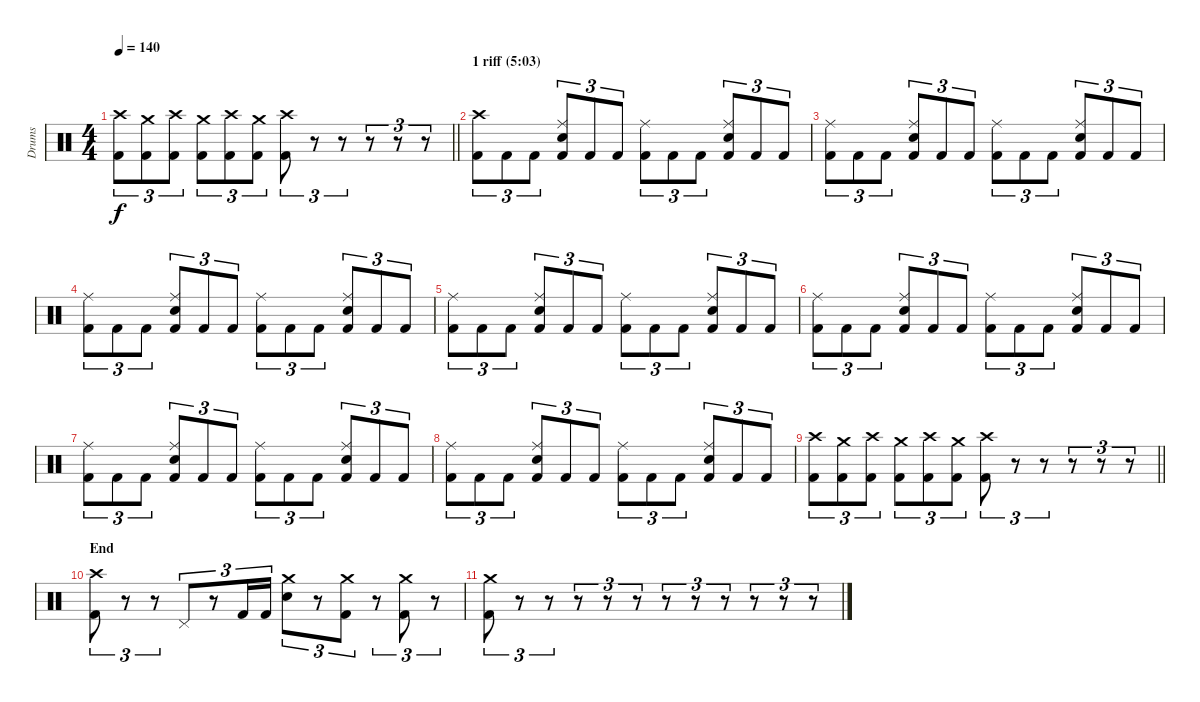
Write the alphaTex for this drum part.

\track ("Drums" "Drums") {instrument percussion}
\staff {score}
\articulation defaults
\ts (4 4)
\tempo 140
\clef neutral
\barLineRight lightlight
\ks c
("Crash high (hit)" "Kick (hit) 2").8{tu (3 2) dy f} ("Crash medium (hit)" "Kick (hit) 2").8{tu (3 2)} ("Crash high (hit)" "Kick (hit) 2").8{tu (3 2)} ("Crash medium (hit)" "Kick (hit) 2").8{tu (3 2)} ("Crash high (hit)" "Kick (hit) 2").8{tu (3 2)} ("Crash medium (hit)" "Kick (hit) 2").8{tu (3 2)} ("Crash high (hit)" "Kick (hit) 2").8{tu (3 2)} r.8{tu (3 2)} r.8{tu (3 2)} r.8{tu (3 2)} r.8{tu (3 2)} r.8{tu (3 2)} |
\section ("" "1 riff (5:03)")
("Crash high (hit)" "Kick (hit) 2").8{tu (3 2)} "Kick (hit) 2".8{tu (3 2)} "Kick (hit) 2".8{tu (3 2)} ("Ride (middle)" "Snare (hit) 2" "Kick (hit) 2").8{tu (3 2)} "Kick (hit) 2".8{tu (3 2)} "Kick (hit) 2".8{tu (3 2)} ("Ride (middle)" "Kick (hit) 2").8{tu (3 2)} "Kick (hit) 2".8{tu (3 2)} "Kick (hit) 2".8{tu (3 2)} ("Ride (middle)" "Snare (hit) 2" "Kick (hit) 2").8{tu (3 2)} "Kick (hit) 2".8{tu (3 2)} "Kick (hit) 2".8{tu (3 2)} |
("Ride (middle)" "Kick (hit) 2").8{tu (3 2)} "Kick (hit) 2".8{tu (3 2)} "Kick (hit) 2".8{tu (3 2)} ("Ride (middle)" "Snare (hit) 2" "Kick (hit) 2").8{tu (3 2)} "Kick (hit) 2".8{tu (3 2)} "Kick (hit) 2".8{tu (3 2)} ("Ride (middle)" "Kick (hit) 2").8{tu (3 2)} "Kick (hit) 2".8{tu (3 2)} "Kick (hit) 2".8{tu (3 2)} ("Ride (middle)" "Snare (hit) 2" "Kick (hit) 2").8{tu (3 2)} "Kick (hit) 2".8{tu (3 2)} "Kick (hit) 2".8{tu (3 2)} |
("Ride (middle)" "Kick (hit) 2").8{tu (3 2)} "Kick (hit) 2".8{tu (3 2)} "Kick (hit) 2".8{tu (3 2)} ("Ride (middle)" "Snare (hit) 2" "Kick (hit) 2").8{tu (3 2)} "Kick (hit) 2".8{tu (3 2)} "Kick (hit) 2".8{tu (3 2)} ("Ride (middle)" "Kick (hit) 2").8{tu (3 2)} "Kick (hit) 2".8{tu (3 2)} "Kick (hit) 2".8{tu (3 2)} ("Ride (middle)" "Snare (hit) 2" "Kick (hit) 2").8{tu (3 2)} "Kick (hit) 2".8{tu (3 2)} "Kick (hit) 2".8{tu (3 2)} |
("Ride (middle)" "Kick (hit) 2").8{tu (3 2)} "Kick (hit) 2".8{tu (3 2)} "Kick (hit) 2".8{tu (3 2)} ("Ride (middle)" "Snare (hit) 2" "Kick (hit) 2").8{tu (3 2)} "Kick (hit) 2".8{tu (3 2)} "Kick (hit) 2".8{tu (3 2)} ("Ride (middle)" "Kick (hit) 2").8{tu (3 2)} "Kick (hit) 2".8{tu (3 2)} "Kick (hit) 2".8{tu (3 2)} ("Ride (middle)" "Snare (hit) 2" "Kick (hit) 2").8{tu (3 2)} "Kick (hit) 2".8{tu (3 2)} "Kick (hit) 2".8{tu (3 2)} |
("Ride (middle)" "Kick (hit) 2").8{tu (3 2)} "Kick (hit) 2".8{tu (3 2)} "Kick (hit) 2".8{tu (3 2)} ("Ride (middle)" "Snare (hit) 2" "Kick (hit) 2").8{tu (3 2)} "Kick (hit) 2".8{tu (3 2)} "Kick (hit) 2".8{tu (3 2)} ("Ride (middle)" "Kick (hit) 2").8{tu (3 2)} "Kick (hit) 2".8{tu (3 2)} "Kick (hit) 2".8{tu (3 2)} ("Ride (middle)" "Snare (hit) 2" "Kick (hit) 2").8{tu (3 2)} "Kick (hit) 2".8{tu (3 2)} "Kick (hit) 2".8{tu (3 2)} |
("Ride (middle)" "Kick (hit) 2").8{tu (3 2)} "Kick (hit) 2".8{tu (3 2)} "Kick (hit) 2".8{tu (3 2)} ("Ride (middle)" "Snare (hit) 2" "Kick (hit) 2").8{tu (3 2)} "Kick (hit) 2".8{tu (3 2)} "Kick (hit) 2".8{tu (3 2)} ("Ride (middle)" "Kick (hit) 2").8{tu (3 2)} "Kick (hit) 2".8{tu (3 2)} "Kick (hit) 2".8{tu (3 2)} ("Ride (middle)" "Snare (hit) 2" "Kick (hit) 2").8{tu (3 2)} "Kick (hit) 2".8{tu (3 2)} "Kick (hit) 2".8{tu (3 2)} |
("Ride (middle)" "Kick (hit) 2").8{tu (3 2)} "Kick (hit) 2".8{tu (3 2)} "Kick (hit) 2".8{tu (3 2)} ("Ride (middle)" "Snare (hit) 2" "Kick (hit) 2").8{tu (3 2)} "Kick (hit) 2".8{tu (3 2)} "Kick (hit) 2".8{tu (3 2)} ("Ride (middle)" "Kick (hit) 2").8{tu (3 2)} "Kick (hit) 2".8{tu (3 2)} "Kick (hit) 2".8{tu (3 2)} ("Ride (middle)" "Snare (hit) 2" "Kick (hit) 2").8{tu (3 2)} "Kick (hit) 2".8{tu (3 2)} "Kick (hit) 2".8{tu (3 2)} |
\barLineRight lightlight
("Crash high (hit)" "Kick (hit) 2").8{tu (3 2)} ("Crash medium (hit)" "Kick (hit) 2").8{tu (3 2)} ("Crash high (hit)" "Kick (hit) 2").8{tu (3 2)} ("Crash medium (hit)" "Kick (hit) 2").8{tu (3 2)} ("Crash high (hit)" "Kick (hit) 2").8{tu (3 2)} ("Crash medium (hit)" "Kick (hit) 2").8{tu (3 2)} ("Crash high (hit)" "Kick (hit) 2").8{tu (3 2)} r.8{tu (3 2)} r.8{tu (3 2)} r.8{tu (3 2)} r.8{tu (3 2)} r.8{tu (3 2)} |
\section ("" "End ")
("Crash high (hit)" "Kick (hit) 2").8{tu (3 2)} r.8{tu (3 2)} r.8{tu (3 2)} "Pedal Hi-Hat (hit)".8{tu (3 2)} r.8{tu (3 2)} "Kick (hit) 2".16{tu (3 2)} "Kick (hit) 2".16{tu (3 2)} ("Crash medium (hit)" "Snare (hit) 2").8{tu (3 2)} r.8{tu (3 2)} ("Crash medium (hit)" "Kick (hit) 2").8{tu (3 2)} r.8{tu (3 2)} ("Crash medium (hit)" "Kick (hit) 2").8{tu (3 2)} r.8{tu (3 2)} |
("Crash medium (hit)" "Kick (hit) 2").8{tu (3 2)} r.8{tu (3 2)} r.8{tu (3 2)} r.8{tu (3 2)} r.8{tu (3 2)} r.8{tu (3 2)} r.8{tu (3 2)} r.8{tu (3 2)} r.8{tu (3 2)} r.8{tu (3 2)} r.8{tu (3 2)} r.8{tu (3 2)}
